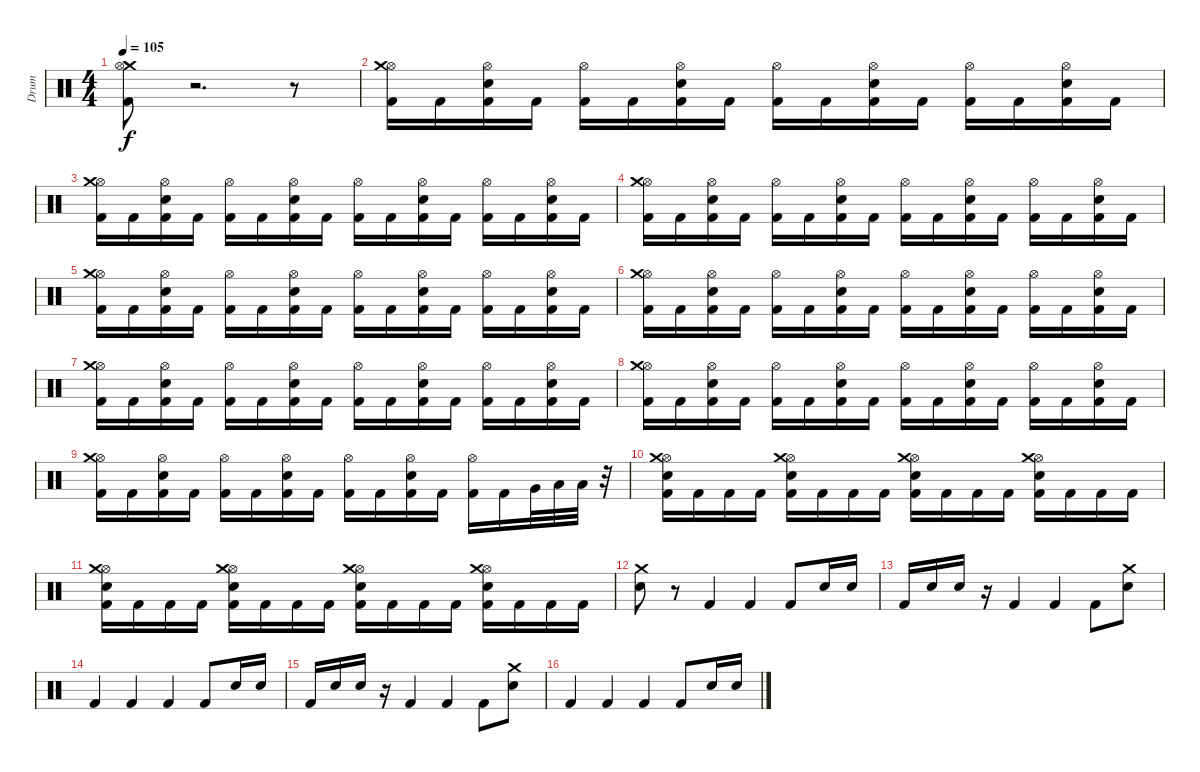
\track ("Drum" "Drum") {instrument percussion}
\staff {score}
\articulation defaults
\ts (4 4)
\tempo 105
\clef neutral
\ks c
("Crash medium (hit)" "Hi-Hat (open)" "Kick (hit) 2").8{dy f} r.2{d} r.8 |
("Hi-Hat (open)" "Crash medium (hit)" "Kick (hit) 2").16 "Kick (hit) 2".16 ("Electric Snare (hit)" "Hi-Hat (open)" "Kick (hit) 2").16 "Kick (hit) 2".16 ("Hi-Hat (open)" "Kick (hit) 2").16 "Kick (hit) 2".16 ("Electric Snare (hit)" "Hi-Hat (open)" "Kick (hit) 2").16 "Kick (hit) 2".16 ("Hi-Hat (open)" "Kick (hit) 2").16 "Kick (hit) 2".16 ("Electric Snare (hit)" "Hi-Hat (open)" "Kick (hit) 2").16 "Kick (hit) 2".16 ("Hi-Hat (open)" "Kick (hit) 2").16 "Kick (hit) 2".16 ("Electric Snare (hit)" "Hi-Hat (open)" "Kick (hit) 2").16 "Kick (hit) 2".16 |
("Hi-Hat (open)" "Crash medium (hit)" "Kick (hit) 2").16 "Kick (hit) 2".16 ("Electric Snare (hit)" "Hi-Hat (open)" "Kick (hit) 2").16 "Kick (hit) 2".16 ("Hi-Hat (open)" "Kick (hit) 2").16 "Kick (hit) 2".16 ("Electric Snare (hit)" "Hi-Hat (open)" "Kick (hit) 2").16 "Kick (hit) 2".16 ("Hi-Hat (open)" "Kick (hit) 2").16 "Kick (hit) 2".16 ("Electric Snare (hit)" "Hi-Hat (open)" "Kick (hit) 2").16 "Kick (hit) 2".16 ("Hi-Hat (open)" "Kick (hit) 2").16 "Kick (hit) 2".16 ("Electric Snare (hit)" "Hi-Hat (open)" "Kick (hit) 2").16 "Kick (hit) 2".16 |
("Hi-Hat (open)" "Crash medium (hit)" "Kick (hit) 2").16 "Kick (hit) 2".16 ("Electric Snare (hit)" "Hi-Hat (open)" "Kick (hit) 2").16 "Kick (hit) 2".16 ("Hi-Hat (open)" "Kick (hit) 2").16 "Kick (hit) 2".16 ("Electric Snare (hit)" "Hi-Hat (open)" "Kick (hit) 2").16 "Kick (hit) 2".16 ("Hi-Hat (open)" "Kick (hit) 2").16 "Kick (hit) 2".16 ("Electric Snare (hit)" "Hi-Hat (open)" "Kick (hit) 2").16 "Kick (hit) 2".16 ("Hi-Hat (open)" "Kick (hit) 2").16 "Kick (hit) 2".16 ("Electric Snare (hit)" "Hi-Hat (open)" "Kick (hit) 2").16 "Kick (hit) 2".16 |
("Hi-Hat (open)" "Crash medium (hit)" "Kick (hit) 2").16 "Kick (hit) 2".16 ("Electric Snare (hit)" "Hi-Hat (open)" "Kick (hit) 2").16 "Kick (hit) 2".16 ("Hi-Hat (open)" "Kick (hit) 2").16 "Kick (hit) 2".16 ("Electric Snare (hit)" "Hi-Hat (open)" "Kick (hit) 2").16 "Kick (hit) 2".16 ("Hi-Hat (open)" "Kick (hit) 2").16 "Kick (hit) 2".16 ("Electric Snare (hit)" "Hi-Hat (open)" "Kick (hit) 2").16 "Kick (hit) 2".16 ("Hi-Hat (open)" "Kick (hit) 2").16 "Kick (hit) 2".16 ("Electric Snare (hit)" "Hi-Hat (open)" "Kick (hit) 2").16 "Kick (hit) 2".16 |
("Hi-Hat (open)" "Crash medium (hit)" "Kick (hit) 2").16 "Kick (hit) 2".16 ("Electric Snare (hit)" "Hi-Hat (open)" "Kick (hit) 2").16 "Kick (hit) 2".16 ("Hi-Hat (open)" "Kick (hit) 2").16 "Kick (hit) 2".16 ("Electric Snare (hit)" "Hi-Hat (open)" "Kick (hit) 2").16 "Kick (hit) 2".16 ("Hi-Hat (open)" "Kick (hit) 2").16 "Kick (hit) 2".16 ("Electric Snare (hit)" "Hi-Hat (open)" "Kick (hit) 2").16 "Kick (hit) 2".16 ("Hi-Hat (open)" "Kick (hit) 2").16 "Kick (hit) 2".16 ("Electric Snare (hit)" "Hi-Hat (open)" "Kick (hit) 2").16 "Kick (hit) 2".16 |
("Hi-Hat (open)" "Crash medium (hit)" "Kick (hit) 2").16 "Kick (hit) 2".16 ("Electric Snare (hit)" "Hi-Hat (open)" "Kick (hit) 2").16 "Kick (hit) 2".16 ("Hi-Hat (open)" "Kick (hit) 2").16 "Kick (hit) 2".16 ("Electric Snare (hit)" "Hi-Hat (open)" "Kick (hit) 2").16 "Kick (hit) 2".16 ("Hi-Hat (open)" "Kick (hit) 2").16 "Kick (hit) 2".16 ("Electric Snare (hit)" "Hi-Hat (open)" "Kick (hit) 2").16 "Kick (hit) 2".16 ("Hi-Hat (open)" "Kick (hit) 2").16 "Kick (hit) 2".16 ("Electric Snare (hit)" "Hi-Hat (open)" "Kick (hit) 2").16 "Kick (hit) 2".16 |
("Hi-Hat (open)" "Crash medium (hit)" "Kick (hit) 2").16 "Kick (hit) 2".16 ("Electric Snare (hit)" "Hi-Hat (open)" "Kick (hit) 2").16 "Kick (hit) 2".16 ("Hi-Hat (open)" "Kick (hit) 2").16 "Kick (hit) 2".16 ("Electric Snare (hit)" "Hi-Hat (open)" "Kick (hit) 2").16 "Kick (hit) 2".16 ("Hi-Hat (open)" "Kick (hit) 2").16 "Kick (hit) 2".16 ("Electric Snare (hit)" "Hi-Hat (open)" "Kick (hit) 2").16 "Kick (hit) 2".16 ("Hi-Hat (open)" "Kick (hit) 2").16 "Kick (hit) 2".16 ("Electric Snare (hit)" "Hi-Hat (open)" "Kick (hit) 2").16 "Kick (hit) 2".16 |
("Hi-Hat (open)" "Crash medium (hit)" "Kick (hit) 2").16 "Kick (hit) 2".16 ("Electric Snare (hit)" "Hi-Hat (open)" "Kick (hit) 2").16 "Kick (hit) 2".16 ("Hi-Hat (open)" "Kick (hit) 2").16 "Kick (hit) 2".16 ("Electric Snare (hit)" "Hi-Hat (open)" "Kick (hit) 2").16 "Kick (hit) 2".16 ("Hi-Hat (open)" "Kick (hit) 2").16 "Kick (hit) 2".16 ("Electric Snare (hit)" "Hi-Hat (open)" "Kick (hit) 2").16 "Kick (hit) 2".16 ("Hi-Hat (open)" "Kick (hit) 2").16 "Kick (hit) 2".16 "Very Low Tom (hit)".32 "Low Floor Tom (hit)".32 "Low Floor Tom (hit)".32 r.32 |
("Electric Snare (hit)" "Hi-Hat (open)" "Crash medium (hit)" "Kick (hit) 2").16 "Kick (hit) 2".16 "Kick (hit) 2".16 "Kick (hit) 2".16 ("Electric Snare (hit)" "Hi-Hat (open)" "Crash medium (hit)" "Kick (hit) 2").16 "Kick (hit) 2".16 "Kick (hit) 2".16 "Kick (hit) 2".16 ("Electric Snare (hit)" "Hi-Hat (open)" "Crash medium (hit)" "Kick (hit) 2").16 "Kick (hit) 2".16 "Kick (hit) 2".16 "Kick (hit) 2".16 ("Electric Snare (hit)" "Hi-Hat (open)" "Crash medium (hit)" "Kick (hit) 2").16 "Kick (hit) 2".16 "Kick (hit) 2".16 "Kick (hit) 2".16 |
("Electric Snare (hit)" "Hi-Hat (open)" "Crash medium (hit)" "Kick (hit) 2").16 "Kick (hit) 2".16 "Kick (hit) 2".16 "Kick (hit) 2".16 ("Electric Snare (hit)" "Hi-Hat (open)" "Crash medium (hit)" "Kick (hit) 2").16 "Kick (hit) 2".16 "Kick (hit) 2".16 "Kick (hit) 2".16 ("Electric Snare (hit)" "Hi-Hat (open)" "Crash medium (hit)" "Kick (hit) 2").16 "Kick (hit) 2".16 "Kick (hit) 2".16 "Kick (hit) 2".16 ("Electric Snare (hit)" "Hi-Hat (open)" "Crash medium (hit)" "Kick (hit) 2").16 "Kick (hit) 2".16 "Kick (hit) 2".16 "Kick (hit) 2".16 |
("Crash medium (hit)" "Electric Snare (hit)").8{volume 10} r.8 "Kick (hit) 2".4 "Kick (hit) 2".4 "Kick (hit) 2".8 "Electric Snare (hit)".16 "Electric Snare (hit)".16 |
"Kick (hit) 2".16 "Electric Snare (hit)".16 "Electric Snare (hit)".16 r.16 "Kick (hit) 2".4 "Kick (hit) 2".4 "Kick (hit) 2".8 ("Crash medium (hit)" "Electric Snare (hit)").8 |
"Kick (hit) 2".4 "Kick (hit) 2".4 "Kick (hit) 2".4 "Kick (hit) 2".8 "Electric Snare (hit)".16 "Electric Snare (hit)".16 |
"Kick (hit) 2".16 "Electric Snare (hit)".16 "Electric Snare (hit)".16 r.16 "Kick (hit) 2".4 "Kick (hit) 2".4 "Kick (hit) 2".8 ("Crash medium (hit)" "Electric Snare (hit)").8 |
"Kick (hit) 2".4 "Kick (hit) 2".4 "Kick (hit) 2".4 "Kick (hit) 2".8 "Electric Snare (hit)".16 "Electric Snare (hit)".16
